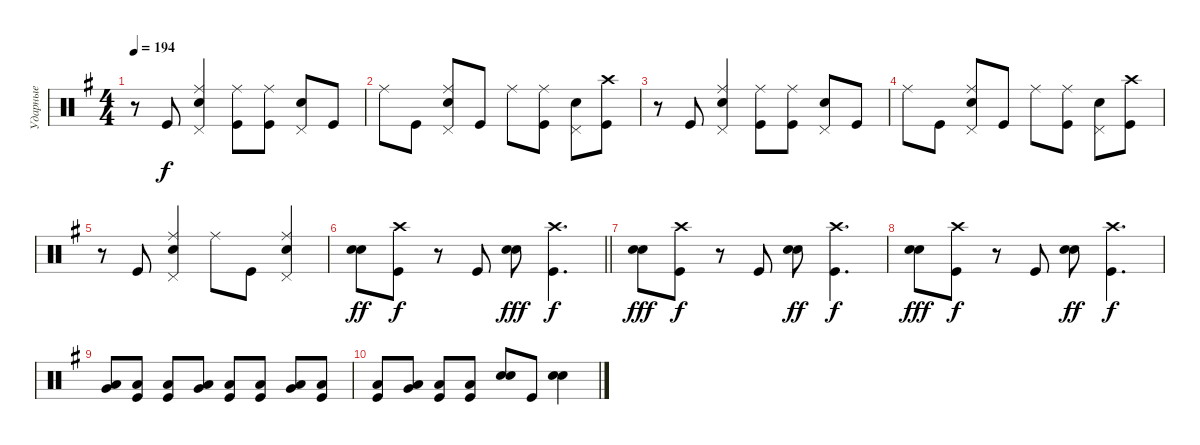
\track ("Ударные" "Ударные") {instrument percussion}
\staff {score}
\articulation defaults
\ts (4 4)
\tempo 194
\clef neutral
\ks eminor
r.8{dy f} "Kick (hit)".8 ("Ride (middle)" "Snare (hit) 2" "Pedal Hi-Hat (hit)").4 ("Ride (middle)" "Kick (hit)").8 ("Ride (middle)" "Kick (hit)").8 ("Pedal Hi-Hat (hit)" "Snare (hit) 2").8 "Kick (hit)".8 |
"Ride (middle)".8 "Kick (hit)".8 ("Ride (middle)" "Snare (hit) 2" "Pedal Hi-Hat (hit)").8 "Kick (hit)".8 "Ride (middle)".8 ("Ride (middle)" "Kick (hit)").8 ("Pedal Hi-Hat (hit)" "Snare (hit) 2").8 ("Crash high (hit)" "Kick (hit)").8 |
r.8 "Kick (hit)".8 ("Ride (middle)" "Snare (hit) 2" "Pedal Hi-Hat (hit)").4 ("Ride (middle)" "Kick (hit)").8 ("Ride (middle)" "Kick (hit)").8 ("Pedal Hi-Hat (hit)" "Snare (hit) 2").8 "Kick (hit)".8 |
"Ride (middle)".8 "Kick (hit)".8 ("Ride (middle)" "Snare (hit) 2" "Pedal Hi-Hat (hit)").8 "Kick (hit)".8 "Ride (middle)".8 ("Ride (middle)" "Kick (hit)").8 ("Pedal Hi-Hat (hit)" "Snare (hit) 2").8 ("Crash high (hit)" "Kick (hit)").8 |
r.8 "Kick (hit)".8 ("Ride (middle)" "Snare (hit) 2" "Pedal Hi-Hat (hit)").4 "Ride (middle)".8 "Kick (hit)".8 ("Pedal Hi-Hat (hit)" "Snare (hit) 2" "Ride (middle)").4 |
\barLineRight lightlight
("Snare (hit) 2" "Snare (hit) 2").8{bd 240 dy ff} ("Kick (hit)" "Crash high (hit)").8{dy f} r.8 "Kick (hit)".8 ("Snare (hit) 2" "Snare (hit) 2").8{bd 240 dy fff} ("Kick (hit)" "Crash high (hit)").4{d dy f} |
("Snare (hit) 2" "Snare (hit) 2").8{bd 240 dy fff} ("Kick (hit)" "Crash high (hit)").8{dy f} r.8 "Kick (hit)".8 ("Snare (hit) 2" "Snare (hit) 2").8{bd 240 dy ff} ("Kick (hit)" "Crash high (hit)").4{d dy f} |
("Snare (hit) 2" "Snare (hit) 2").8{bd 240 dy fff} ("Kick (hit)" "Crash high (hit)").8{dy f} r.8 "Kick (hit)".8 ("Snare (hit) 2" "Snare (hit) 2").8{bd 240 dy ff} ("Kick (hit)" "Crash high (hit)").4{d dy f} |
("Very Low Tom (hit)" "Low Floor Tom (hit)").8{bd 240} ("Low Floor Tom (hit)" "Kick (hit)").8 ("Low Floor Tom (hit)" "Kick (hit)").8 ("Low Floor Tom (hit)" "Very Low Tom (hit)").8{bd 240} ("Low Floor Tom (hit)" "Kick (hit)").8 ("Low Floor Tom (hit)" "Kick (hit)").8 ("Very Low Tom (hit)" "Low Floor Tom (hit)").8{bd 240} ("Low Floor Tom (hit)" "Kick (hit)").8 |
("Low Floor Tom (hit)" "Kick (hit)").8 ("Very Low Tom (hit)" "Low Floor Tom (hit)").8{bd 240} ("Low Floor Tom (hit)" "Kick (hit)").8 ("Low Floor Tom (hit)" "Kick (hit)").8 ("Snare (hit) 2" "Snare (hit) 2").8{bd 240} "Kick (hit)".8 ("Snare (hit) 2" "Snare (hit) 2").4{bd 240}
